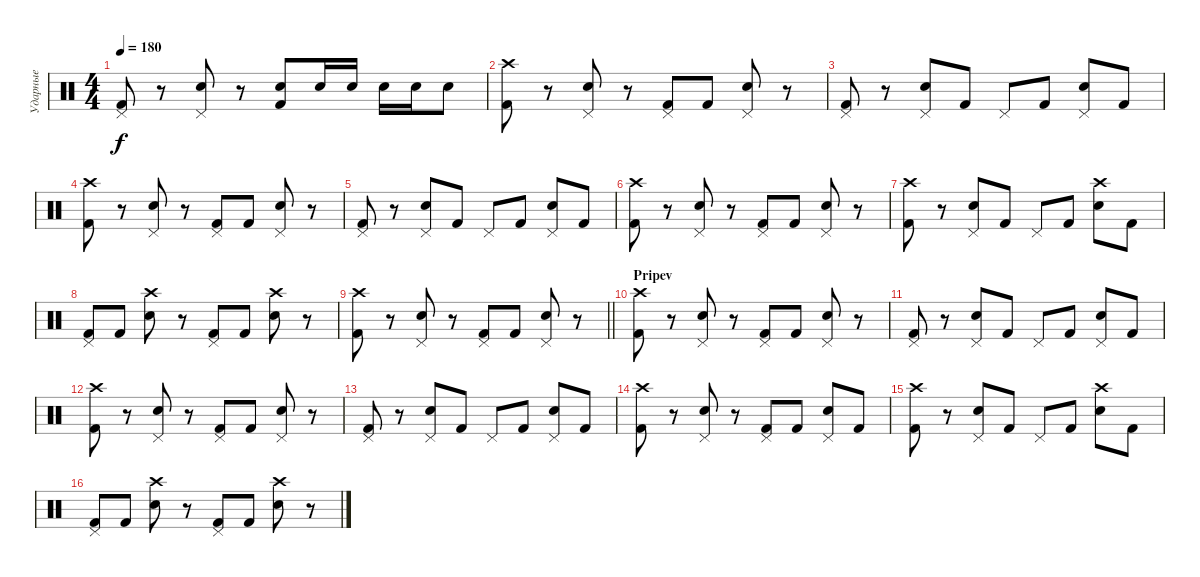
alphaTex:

\track ("Ударные" "Ударные") {instrument percussion}
\staff {score}
\articulation defaults
\ts (4 4)
\tempo 180
\clef neutral
\ks c
("Pedal Hi-Hat (hit)" "Kick (hit) 2").8{dy f} r.8 ("Pedal Hi-Hat (hit)" "Electric Snare (hit)").8 r.8 ("Electric Snare (hit)" "Kick (hit) 2").8 "Electric Snare (hit)".16 "Electric Snare (hit)".16 "Electric Snare (hit)".16 "Electric Snare (hit)".16 "Electric Snare (hit)".8 |
("Crash high (hit)" "Kick (hit) 2").8 r.8 ("Pedal Hi-Hat (hit)" "Electric Snare (hit)").8 r.8 ("Pedal Hi-Hat (hit)" "Kick (hit) 2").8 "Kick (hit) 2".8 ("Pedal Hi-Hat (hit)" "Electric Snare (hit)").8 r.8 |
("Pedal Hi-Hat (hit)" "Kick (hit) 2").8 r.8 ("Pedal Hi-Hat (hit)" "Electric Snare (hit)").8 "Kick (hit) 2".8 "Pedal Hi-Hat (hit)".8 "Kick (hit) 2".8 ("Pedal Hi-Hat (hit)" "Electric Snare (hit)").8 "Kick (hit) 2".8 |
("Crash high (hit)" "Kick (hit) 2").8 r.8 ("Pedal Hi-Hat (hit)" "Electric Snare (hit)").8 r.8 ("Pedal Hi-Hat (hit)" "Kick (hit) 2").8 "Kick (hit) 2".8 ("Pedal Hi-Hat (hit)" "Electric Snare (hit)").8 r.8 |
("Pedal Hi-Hat (hit)" "Kick (hit) 2").8 r.8 ("Pedal Hi-Hat (hit)" "Electric Snare (hit)").8 "Kick (hit) 2".8 "Pedal Hi-Hat (hit)".8 "Kick (hit) 2".8 ("Pedal Hi-Hat (hit)" "Electric Snare (hit)").8 "Kick (hit) 2".8 |
("Crash high (hit)" "Kick (hit) 2").8 r.8 ("Pedal Hi-Hat (hit)" "Electric Snare (hit)").8 r.8 ("Pedal Hi-Hat (hit)" "Kick (hit) 2").8 "Kick (hit) 2".8 ("Pedal Hi-Hat (hit)" "Electric Snare (hit)").8 r.8 |
("Crash high (hit)" "Kick (hit) 2").8 r.8 ("Pedal Hi-Hat (hit)" "Electric Snare (hit)").8 "Kick (hit) 2".8 "Pedal Hi-Hat (hit)".8 "Kick (hit) 2".8 ("Crash high (hit)" "Electric Snare (hit)").8 "Kick (hit) 2".8 |
("Pedal Hi-Hat (hit)" "Kick (hit) 2").8 "Kick (hit) 2".8 ("Crash high (hit)" "Electric Snare (hit)").8 r.8 ("Pedal Hi-Hat (hit)" "Kick (hit) 2").8 "Kick (hit) 2".8 ("Crash high (hit)" "Electric Snare (hit)").8 r.8 |
\barLineRight lightlight
("Crash high (hit)" "Kick (hit) 2").8 r.8 ("Pedal Hi-Hat (hit)" "Electric Snare (hit)").8 r.8 ("Pedal Hi-Hat (hit)" "Kick (hit) 2").8 "Kick (hit) 2".8 ("Pedal Hi-Hat (hit)" "Electric Snare (hit)").8 r.8 |
\section ("" "Pripev")
("Crash high (hit)" "Kick (hit) 2").8 r.8 ("Pedal Hi-Hat (hit)" "Electric Snare (hit)").8 r.8 ("Pedal Hi-Hat (hit)" "Kick (hit) 2").8 "Kick (hit) 2".8 ("Pedal Hi-Hat (hit)" "Electric Snare (hit)").8 r.8 |
("Pedal Hi-Hat (hit)" "Kick (hit) 2").8 r.8 ("Pedal Hi-Hat (hit)" "Electric Snare (hit)").8 "Kick (hit) 2".8 "Pedal Hi-Hat (hit)".8 "Kick (hit) 2".8 ("Pedal Hi-Hat (hit)" "Electric Snare (hit)").8 "Kick (hit) 2".8 |
("Crash high (hit)" "Kick (hit) 2").8 r.8 ("Pedal Hi-Hat (hit)" "Electric Snare (hit)").8 r.8 ("Pedal Hi-Hat (hit)" "Kick (hit) 2").8 "Kick (hit) 2".8 ("Pedal Hi-Hat (hit)" "Electric Snare (hit)").8 r.8 |
("Pedal Hi-Hat (hit)" "Kick (hit) 2").8 r.8 ("Pedal Hi-Hat (hit)" "Electric Snare (hit)").8 "Kick (hit) 2".8 "Pedal Hi-Hat (hit)".8 "Kick (hit) 2".8 ("Pedal Hi-Hat (hit)" "Electric Snare (hit)").8 "Kick (hit) 2".8 |
("Crash high (hit)" "Kick (hit) 2").8 r.8 ("Pedal Hi-Hat (hit)" "Electric Snare (hit)").8 r.8 ("Pedal Hi-Hat (hit)" "Kick (hit) 2").8 "Kick (hit) 2".8 ("Pedal Hi-Hat (hit)" "Electric Snare (hit)").8 "Kick (hit) 2".8 |
("Crash high (hit)" "Kick (hit) 2").8 r.8 ("Pedal Hi-Hat (hit)" "Electric Snare (hit)").8 "Kick (hit) 2".8 "Pedal Hi-Hat (hit)".8 "Kick (hit) 2".8 ("Crash high (hit)" "Electric Snare (hit)").8 "Kick (hit) 2".8 |
("Pedal Hi-Hat (hit)" "Kick (hit) 2").8 "Kick (hit) 2".8 ("Crash high (hit)" "Electric Snare (hit)").8 r.8 ("Pedal Hi-Hat (hit)" "Kick (hit) 2").8 "Kick (hit) 2".8 ("Crash high (hit)" "Electric Snare (hit)").8 r.8
